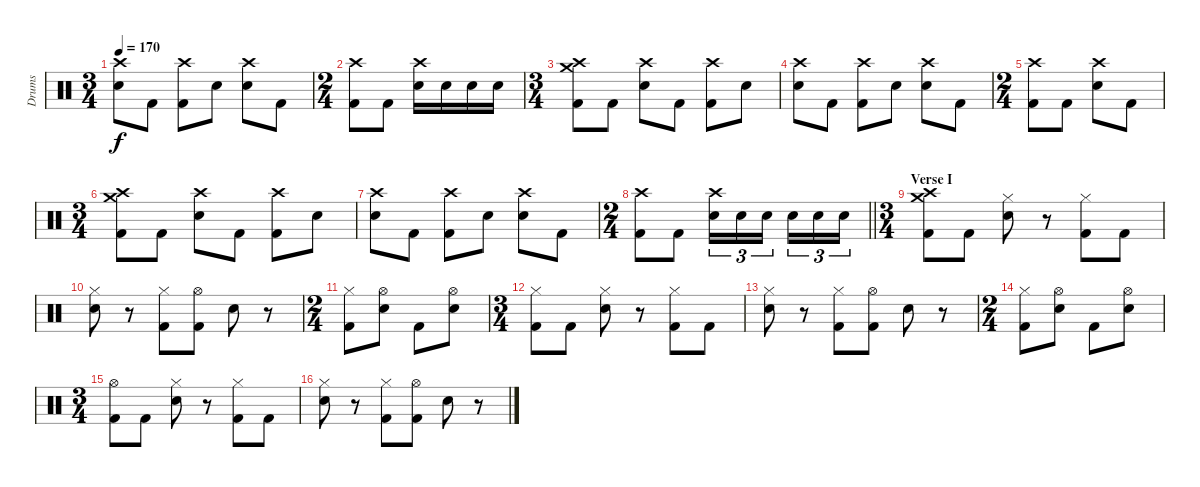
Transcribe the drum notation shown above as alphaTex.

\track ("Drums" "Drums") {instrument percussion}
\staff {score}
\articulation defaults
\ts (3 4)
\tempo 170
\clef neutral
\ks c
("Crash high (hit)" "Electric Snare (hit)").8{dy f} "Kick (hit) 2".8 ("Crash high (hit)" "Kick (hit) 2").8 "Electric Snare (hit)".8 ("Crash high (hit)" "Electric Snare (hit)").8 "Kick (hit) 2".8 |
\ts (2 4)
("Crash high (hit)" "Kick (hit) 2").8 "Kick (hit) 2".8 ("Crash high (hit)" "Electric Snare (hit)").16 "Electric Snare (hit)".16 "Electric Snare (hit)".16 "Electric Snare (hit)".16 |
\ts (3 4)
("Crash medium (hit)" "Crash high (hit)" "Kick (hit) 2").8 "Kick (hit) 2".8 ("Crash high (hit)" "Electric Snare (hit)").8 "Kick (hit) 2".8 ("Crash high (hit)" "Kick (hit) 2").8 "Electric Snare (hit)".8 |
("Crash high (hit)" "Electric Snare (hit)").8 "Kick (hit) 2".8 ("Crash high (hit)" "Kick (hit) 2").8 "Electric Snare (hit)".8 ("Crash high (hit)" "Electric Snare (hit)").8 "Kick (hit) 2".8 |
\ts (2 4)
("Crash high (hit)" "Kick (hit) 2").8 "Kick (hit) 2".8 ("Crash high (hit)" "Electric Snare (hit)").8 "Kick (hit) 2".8 |
\ts (3 4)
("Crash medium (hit)" "Crash high (hit)" "Kick (hit) 2").8 "Kick (hit) 2".8 ("Crash high (hit)" "Electric Snare (hit)").8 "Kick (hit) 2".8 ("Crash high (hit)" "Kick (hit) 2").8 "Electric Snare (hit)".8 |
("Crash high (hit)" "Electric Snare (hit)").8 "Kick (hit) 2".8 ("Crash high (hit)" "Kick (hit) 2").8 "Electric Snare (hit)".8 ("Crash high (hit)" "Electric Snare (hit)").8 "Kick (hit) 2".8 |
\ts (2 4)
\barLineRight lightlight
("Crash high (hit)" "Kick (hit) 2").8 "Kick (hit) 2".8 ("Crash high (hit)" "Electric Snare (hit)").16{tu (3 2)} "Electric Snare (hit)".16{tu (3 2)} "Electric Snare (hit)".16{tu (3 2) beam splitsecondary} "Electric Snare (hit)".16{tu (3 2)} "Electric Snare (hit)".16{tu (3 2)} "Electric Snare (hit)".16{tu (3 2)} |
\ts (3 4)
\section ("" "Verse I")
("Crash medium (hit)" "Crash high (hit)" "Kick (hit) 2").8 "Kick (hit) 2".8 ("Hi-Hat (closed)" "Electric Snare (hit)").8 r.8 ("Hi-Hat (closed)" "Kick (hit) 2").8 "Kick (hit) 2".8 |
("Hi-Hat (closed)" "Electric Snare (hit)").8 r.8 ("Hi-Hat (closed)" "Kick (hit) 2").8 ("Hi-Hat (open)" "Kick (hit) 2").8 "Electric Snare (hit)".8 r.8 |
\ts (2 4)
("Hi-Hat (closed)" "Kick (hit) 2").8 ("Hi-Hat (open)" "Electric Snare (hit)").8 "Kick (hit) 2".8 ("Hi-Hat (open)" "Electric Snare (hit)").8 |
\ts (3 4)
("Hi-Hat (closed)" "Kick (hit) 2").8 "Kick (hit) 2".8 ("Hi-Hat (closed)" "Electric Snare (hit)").8 r.8 ("Hi-Hat (closed)" "Kick (hit) 2").8 "Kick (hit) 2".8 |
("Hi-Hat (closed)" "Electric Snare (hit)").8 r.8 ("Hi-Hat (closed)" "Kick (hit) 2").8 ("Hi-Hat (open)" "Kick (hit) 2").8 "Electric Snare (hit)".8 r.8 |
\ts (2 4)
("Hi-Hat (closed)" "Kick (hit) 2").8 ("Hi-Hat (open)" "Electric Snare (hit)").8 "Kick (hit) 2".8 ("Hi-Hat (open)" "Electric Snare (hit)").8 |
\ts (3 4)
("Hi-Hat (open)" "Kick (hit) 2").8 "Kick (hit) 2".8 ("Hi-Hat (closed)" "Electric Snare (hit)").8 r.8 ("Hi-Hat (closed)" "Kick (hit) 2").8 "Kick (hit) 2".8 |
("Hi-Hat (closed)" "Electric Snare (hit)").8 r.8 ("Hi-Hat (closed)" "Kick (hit) 2").8 ("Hi-Hat (open)" "Kick (hit) 2").8 "Electric Snare (hit)".8 r.8
